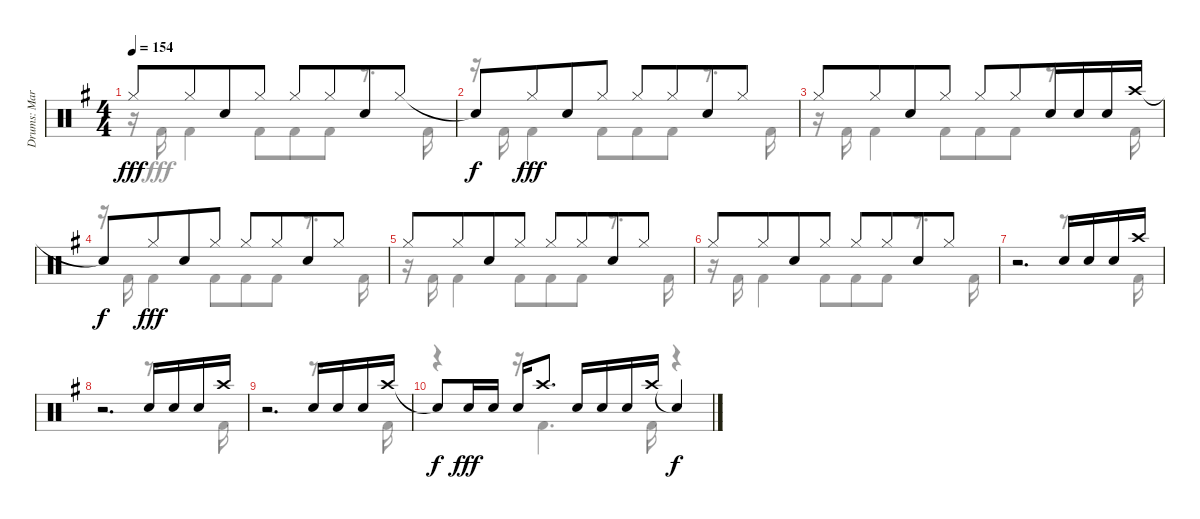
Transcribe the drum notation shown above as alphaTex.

\track ("Drums: Mark" "Drums: Mar") {instrument percussion}
\staff {score}
\articulation defaults
\voice
\ts (4 4)
\tempo 154
\clef neutral
\ks g "Hi-Hat (closed)".8{dy fff} "Hi-Hat (closed)".8{beam merge} "Snare (hit) 2".8 "Hi-Hat (closed)".8 "Hi-Hat (closed)".8 "Hi-Hat (closed)".8{beam merge} "Snare (hit) 2".8 "Hi-Hat (closed)".8
|
"Snare (hit)"{t}.8{dy f} "Hi-Hat (closed)".8{dy fff beam merge} "Snare (hit) 2".8 "Hi-Hat (closed)".8 "Hi-Hat (closed)".8 "Hi-Hat (closed)".8{beam merge} "Snare (hit) 2".8 "Hi-Hat (closed)".8 |
"Hi-Hat (closed)".8 "Hi-Hat (closed)".8{beam merge} "Snare (hit) 2".8 "Hi-Hat (closed)".8 "Hi-Hat (closed)".8 "Hi-Hat (closed)".8{beam merge} "Snare (hit) 2".16 "Snare (hit) 2".16 "Snare (hit) 2".16 "Crash high (hit)".16 |
"Snare (hit)"{t}.8{dy f} "Hi-Hat (closed)".8{dy fff beam merge} "Snare (hit) 2".8 "Hi-Hat (closed)".8 "Hi-Hat (closed)".8 "Hi-Hat (closed)".8{beam merge} "Snare (hit) 2".8 "Hi-Hat (closed)".8 |
"Hi-Hat (closed)".8 "Hi-Hat (closed)".8{beam merge} "Snare (hit) 2".8 "Hi-Hat (closed)".8 "Hi-Hat (closed)".8 "Hi-Hat (closed)".8{beam merge} "Snare (hit) 2".8 "Hi-Hat (closed)".8 |
"Hi-Hat (closed)".8 "Hi-Hat (closed)".8{beam merge} "Snare (hit) 2".8 "Hi-Hat (closed)".8 "Hi-Hat (closed)".8 "Hi-Hat (closed)".8{beam merge} "Snare (hit) 2".8 "Hi-Hat (closed)".8 |
r.2{d} "Snare (hit) 2".16 "Snare (hit) 2".16 "Snare (hit) 2".16 "Crash high (hit)".16 |
r.2{d} "Snare (hit) 2".16 "Snare (hit) 2".16 "Snare (hit) 2".16 "Crash high (hit)".16 |
r.2{d} "Snare (hit) 2".16 "Snare (hit) 2".16 "Snare (hit) 2".16 "Crash high (hit)".16 |
"Snare (hit)"{t}.8{dy f} "Snare (hit) 2".16{dy fff} "Snare (hit) 2".16 "Snare (hit) 2".16 "Crash high (hit)".8{d} "Snare (hit) 2".16 "Snare (hit) 2".16 "Snare (hit) 2".16 "Crash high (hit)".16 "Snare (hit)"{t}.4{dy f}
\voice
\clef neutral
\ottava regular
\simile none
\ks g
r.16{dy fff} "Kick (hit) 2".16 "Kick (hit) 2".4 "Kick (hit) 2".8{beam merge} "Kick (hit) 2".8 "Kick (hit) 2".8 r.8{d} "Kick (hit) 2".16 |
r.16 "Kick (hit) 2".16 "Kick (hit) 2".4 "Kick (hit) 2".8{beam merge} "Kick (hit) 2".8 "Kick (hit) 2".8 r.8{d} "Kick (hit) 2".16 |
r.16 "Kick (hit) 2".16 "Kick (hit) 2".4 "Kick (hit) 2".8{beam merge} "Kick (hit) 2".8 "Kick (hit) 2".8 r.8{d} "Kick (hit) 2".16 |
r.16 "Kick (hit) 2".16 "Kick (hit) 2".4 "Kick (hit) 2".8{beam merge} "Kick (hit) 2".8 "Kick (hit) 2".8 r.8{d} "Kick (hit) 2".16 |
r.16 "Kick (hit) 2".16 "Kick (hit) 2".4 "Kick (hit) 2".8{beam merge} "Kick (hit) 2".8 "Kick (hit) 2".8 r.8{d} "Kick (hit) 2".16 |
r.16 "Kick (hit) 2".16 "Kick (hit) 2".4 "Kick (hit) 2".8{beam merge} "Kick (hit) 2".8 "Kick (hit) 2".8 r.8{d} "Kick (hit) 2".16 |
r.2{d} r.8{d} "Kick (hit) 2".16 |
r.2{d} r.8{d} "Kick (hit) 2".16 |
r.2{d} r.8{d} "Kick (hit) 2".16 |
r.4 r.16 "Kick (hit) 2".4{d} "Kick (hit) 2".16 r.4
